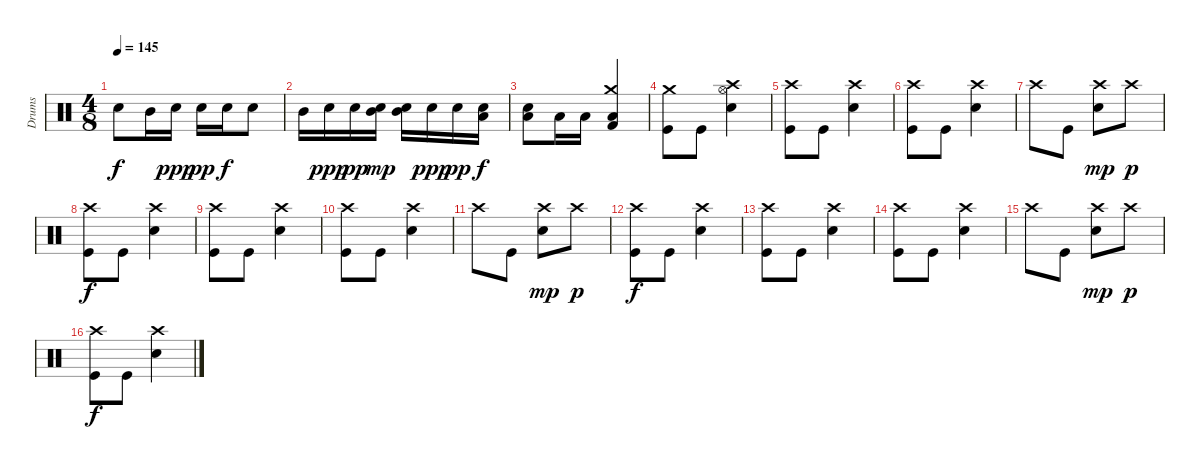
\track ("Drums" "Drums") {instrument percussion}
\staff {score}
\articulation defaults
\ts (4 8)
\tempo 145
\clef neutral
\ks c "Snare (hit) 2".8{dy f} "Mid Tom (hit)".16 "Snare (hit) 2".16{dy ppp} "Snare (hit) 2".16{dy pp} "Snare (hit) 2".16{dy f} "Snare (hit) 2".8
|
"Mid Tom (hit)".16 "Snare (hit) 2".16{dy ppp} "Snare (hit) 2".16{dy pp} ("Mid Tom (hit)" "Snare (hit) 2").16{dy mp} ("Mid Tom (hit)" "Snare (hit) 2").16 "Snare (hit) 2".16{dy ppp} "Snare (hit) 2".16{dy pp} ("Low Tom (hit)" "Snare (hit) 2").16{dy f} |
("Low Tom (hit)" "Snare (hit) 2").8 "Low Floor Tom (hit)".16 "Low Floor Tom (hit)".16 ("Crash medium (hit)" "Low Floor Tom (hit)" "Kick (hit) 2").4 |
("Crash medium (hit)" "Kick (hit)").8 "Kick (hit)".8 ("Crash high (hit)" "Hi-Hat (open)" "Snare (hit) 2").4 |
("Crash high (hit)" "Kick (hit)").8 "Kick (hit)".8 ("Crash high (hit)" "Snare (hit) 2").4 |
("Crash high (hit)" "Kick (hit)").8 "Kick (hit)".8 ("Crash high (hit)" "Snare (hit) 2").4 |
"Crash high (hit)".8 "Kick (hit)".8 ("Crash high (hit)" "Snare (hit) 2").8{dy mp} "Crash high (hit)".8{dy p} |
("Crash high (hit)" "Kick (hit)").8{dy f} "Kick (hit)".8 ("Crash high (hit)" "Snare (hit) 2").4 |
("Crash high (hit)" "Kick (hit)").8 "Kick (hit)".8 ("Crash high (hit)" "Snare (hit) 2").4 |
("Crash high (hit)" "Kick (hit)").8 "Kick (hit)".8 ("Crash high (hit)" "Snare (hit) 2").4 |
"Crash high (hit)".8 "Kick (hit)".8 ("Crash high (hit)" "Snare (hit) 2").8{dy mp} "Crash high (hit)".8{dy p} |
("Crash high (hit)" "Kick (hit)").8{dy f} "Kick (hit)".8 ("Crash high (hit)" "Snare (hit) 2").4 |
("Crash high (hit)" "Kick (hit)").8 "Kick (hit)".8 ("Crash high (hit)" "Snare (hit) 2").4 |
("Crash high (hit)" "Kick (hit)").8 "Kick (hit)".8 ("Crash high (hit)" "Snare (hit) 2").4 |
"Crash high (hit)".8 "Kick (hit)".8 ("Crash high (hit)" "Snare (hit) 2").8{dy mp} "Crash high (hit)".8{dy p} |
("Crash high (hit)" "Kick (hit)").8{dy f} "Kick (hit)".8 ("Crash high (hit)" "Snare (hit) 2").4
